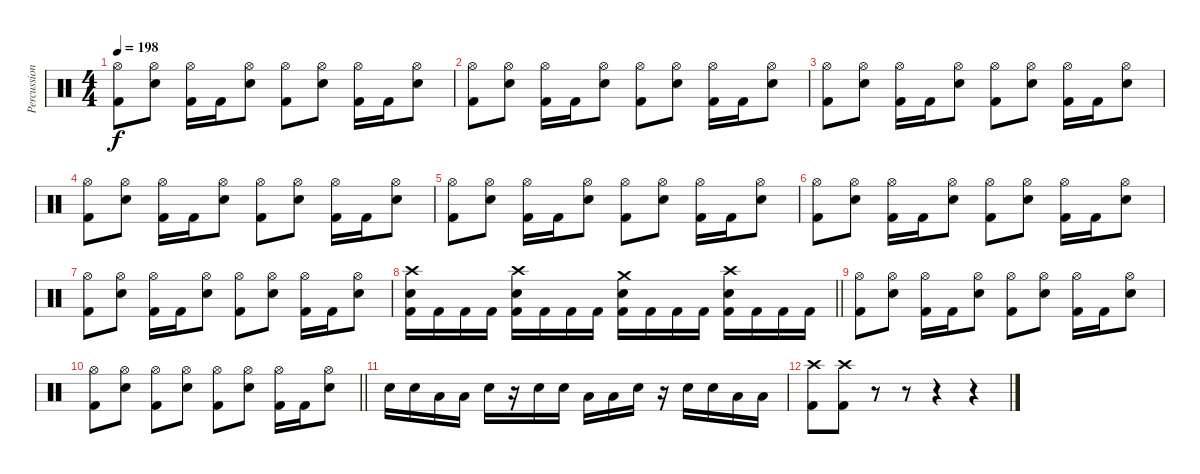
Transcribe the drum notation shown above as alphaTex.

\track ("Percussion" "Percussion") {instrument percussion}
\staff {score}
\articulation defaults
\ts (4 4)
\tempo 198
\clef neutral
\ks c
("Hi-Hat (open)" "Kick (hit) 2").8{dy f} ("Hi-Hat (open)" "Electric Snare (hit)").8 ("Hi-Hat (open)" "Kick (hit) 2").16 "Kick (hit) 2".16 ("Hi-Hat (open)" "Electric Snare (hit)").8 ("Hi-Hat (open)" "Kick (hit) 2").8 ("Hi-Hat (open)" "Electric Snare (hit)").8 ("Hi-Hat (open)" "Kick (hit) 2").16 "Kick (hit) 2".16 ("Hi-Hat (open)" "Electric Snare (hit)").8 |
("Hi-Hat (open)" "Kick (hit) 2").8 ("Hi-Hat (open)" "Electric Snare (hit)").8 ("Hi-Hat (open)" "Kick (hit) 2").16 "Kick (hit) 2".16 ("Hi-Hat (open)" "Electric Snare (hit)").8 ("Hi-Hat (open)" "Kick (hit) 2").8 ("Hi-Hat (open)" "Electric Snare (hit)").8 ("Hi-Hat (open)" "Kick (hit) 2").16 "Kick (hit) 2".16 ("Hi-Hat (open)" "Electric Snare (hit)").8 |
("Hi-Hat (open)" "Kick (hit) 2").8 ("Hi-Hat (open)" "Electric Snare (hit)").8 ("Hi-Hat (open)" "Kick (hit) 2").16 "Kick (hit) 2".16 ("Hi-Hat (open)" "Electric Snare (hit)").8 ("Hi-Hat (open)" "Kick (hit) 2").8 ("Hi-Hat (open)" "Electric Snare (hit)").8 ("Hi-Hat (open)" "Kick (hit) 2").16 "Kick (hit) 2".16 ("Hi-Hat (open)" "Electric Snare (hit)").8 |
("Hi-Hat (open)" "Kick (hit) 2").8 ("Hi-Hat (open)" "Electric Snare (hit)").8 ("Hi-Hat (open)" "Kick (hit) 2").16 "Kick (hit) 2".16 ("Hi-Hat (open)" "Electric Snare (hit)").8 ("Hi-Hat (open)" "Kick (hit) 2").8 ("Hi-Hat (open)" "Electric Snare (hit)").8 ("Hi-Hat (open)" "Kick (hit) 2").16 "Kick (hit) 2".16 ("Hi-Hat (open)" "Electric Snare (hit)").8 |
("Hi-Hat (open)" "Kick (hit) 2").8 ("Hi-Hat (open)" "Electric Snare (hit)").8 ("Hi-Hat (open)" "Kick (hit) 2").16 "Kick (hit) 2".16 ("Hi-Hat (open)" "Electric Snare (hit)").8 ("Hi-Hat (open)" "Kick (hit) 2").8 ("Hi-Hat (open)" "Electric Snare (hit)").8 ("Hi-Hat (open)" "Kick (hit) 2").16 "Kick (hit) 2".16 ("Hi-Hat (open)" "Electric Snare (hit)").8 |
("Hi-Hat (open)" "Kick (hit) 2").8 ("Hi-Hat (open)" "Electric Snare (hit)").8 ("Hi-Hat (open)" "Kick (hit) 2").16 "Kick (hit) 2".16 ("Hi-Hat (open)" "Electric Snare (hit)").8 ("Hi-Hat (open)" "Kick (hit) 2").8 ("Hi-Hat (open)" "Electric Snare (hit)").8 ("Hi-Hat (open)" "Kick (hit) 2").16 "Kick (hit) 2".16 ("Hi-Hat (open)" "Electric Snare (hit)").8 |
("Hi-Hat (open)" "Kick (hit) 2").8 ("Hi-Hat (open)" "Electric Snare (hit)").8 ("Hi-Hat (open)" "Kick (hit) 2").16 "Kick (hit) 2".16 ("Hi-Hat (open)" "Electric Snare (hit)").8 ("Hi-Hat (open)" "Kick (hit) 2").8 ("Hi-Hat (open)" "Electric Snare (hit)").8 ("Hi-Hat (open)" "Kick (hit) 2").16 "Kick (hit) 2".16 ("Hi-Hat (open)" "Electric Snare (hit)").8 |
\barLineRight lightlight
("Crash high (hit)" "Electric Snare (hit)" "Kick (hit) 2").16 "Kick (hit) 2".16 "Kick (hit) 2".16 "Kick (hit) 2".16 ("Electric Snare (hit)" "Crash high (hit)" "Kick (hit) 2").16 "Kick (hit) 2".16 "Kick (hit) 2".16 "Kick (hit) 2".16 ("Crash medium (hit)" "Electric Snare (hit)" "Kick (hit) 2").16 "Kick (hit) 2".16 "Kick (hit) 2".16 "Kick (hit) 2".16 ("Crash high (hit)" "Electric Snare (hit)" "Kick (hit) 2").16 "Kick (hit) 2".16 "Kick (hit) 2".16 "Kick (hit) 2".16 |
("Hi-Hat (open)" "Kick (hit) 2").8 ("Hi-Hat (open)" "Electric Snare (hit)").8 ("Hi-Hat (open)" "Kick (hit) 2").16 "Kick (hit) 2".16 ("Hi-Hat (open)" "Electric Snare (hit)").8 ("Hi-Hat (open)" "Kick (hit) 2").8 ("Hi-Hat (open)" "Electric Snare (hit)").8 ("Hi-Hat (open)" "Kick (hit) 2").16 "Kick (hit) 2".16 ("Hi-Hat (open)" "Electric Snare (hit)").8 |
\barLineRight lightlight
("Hi-Hat (open)" "Kick (hit) 2").8 ("Hi-Hat (open)" "Electric Snare (hit)").8 ("Hi-Hat (open)" "Kick (hit) 2").8 ("Hi-Hat (open)" "Electric Snare (hit)").8 ("Hi-Hat (open)" "Kick (hit) 2").8 ("Hi-Hat (open)" "Electric Snare (hit)").8 ("Hi-Hat (open)" "Kick (hit) 2").16 "Kick (hit) 2".16 ("Hi-Hat (open)" "Electric Snare (hit)").8 |
"Electric Snare (hit)".16 "Electric Snare (hit)".16 "Low Tom (hit)".16 "Low Tom (hit)".16 "Electric Snare (hit)".16 r.16 "Electric Snare (hit)".16 "Electric Snare (hit)".16 "Low Tom (hit)".16 "Low Tom (hit)".16 "Electric Snare (hit)".16 r.16 "Electric Snare (hit)".16 "Electric Snare (hit)".16 "Low Tom (hit)".16 "Low Tom (hit)".16 |
("Crash high (hit)" "Kick (hit) 2").8 ("Crash high (hit)" "Kick (hit) 2").8 r.8 r.8 r.4 r.4
